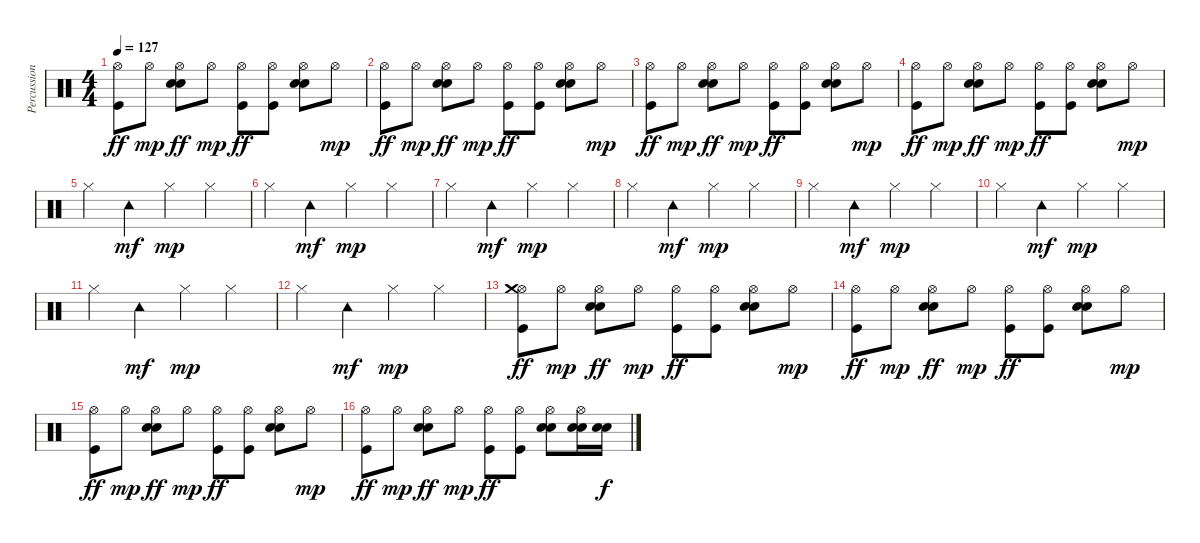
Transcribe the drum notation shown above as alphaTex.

\track ("Percussions" "Percussion") {instrument percussion}
\staff {score}
\articulation defaults
\ts (4 4)
\tempo 127
\clef neutral
\ks c
("Hi-Hat (open)" "Kick (hit)").8{dy ff} "Hi-Hat (open)".8{dy mp} ("Hi-Hat (open)" "Snare (hit) 2" "Electric Snare (hit)").8{dy ff} "Hi-Hat (open)".8{dy mp} ("Hi-Hat (open)" "Kick (hit)").8{dy ff} ("Hi-Hat (open)" "Kick (hit)").8 ("Hi-Hat (open)" "Snare (hit) 2" "Electric Snare (hit)").8 "Hi-Hat (open)".8{dy mp} |
("Hi-Hat (open)" "Kick (hit)").8{dy ff} "Hi-Hat (open)".8{dy mp} ("Hi-Hat (open)" "Snare (hit) 2" "Electric Snare (hit)").8{dy ff} "Hi-Hat (open)".8{dy mp} ("Hi-Hat (open)" "Kick (hit)").8{dy ff} ("Hi-Hat (open)" "Kick (hit)").8 ("Hi-Hat (open)" "Snare (hit) 2" "Electric Snare (hit)").8 "Hi-Hat (open)".8{dy mp} |
("Hi-Hat (open)" "Kick (hit)").8{dy ff} "Hi-Hat (open)".8{dy mp} ("Hi-Hat (open)" "Snare (hit) 2" "Electric Snare (hit)").8{dy ff} "Hi-Hat (open)".8{dy mp} ("Hi-Hat (open)" "Kick (hit)").8{dy ff} ("Hi-Hat (open)" "Kick (hit)").8 ("Hi-Hat (open)" "Snare (hit) 2" "Electric Snare (hit)").8 "Hi-Hat (open)".8{dy mp} |
("Hi-Hat (open)" "Kick (hit)").8{dy ff} "Hi-Hat (open)".8{dy mp} ("Hi-Hat (open)" "Snare (hit) 2" "Electric Snare (hit)").8{dy ff} "Hi-Hat (open)".8{dy mp} ("Hi-Hat (open)" "Kick (hit)").8{dy ff} ("Hi-Hat (open)" "Kick (hit)").8 ("Hi-Hat (open)" "Snare (hit) 2" "Electric Snare (hit)").8 "Hi-Hat (open)".8{dy mp} |
"Hi-Hat (closed)".4 "Tambourine (hit)".4{dy mf} "Hi-Hat (closed)".4{dy mp} "Hi-Hat (closed)".4 |
"Hi-Hat (closed)".4 "Tambourine (hit)".4{dy mf} "Hi-Hat (closed)".4{dy mp} "Hi-Hat (closed)".4 |
"Hi-Hat (closed)".4 "Tambourine (hit)".4{dy mf} "Hi-Hat (closed)".4{dy mp} "Hi-Hat (closed)".4 |
"Hi-Hat (closed)".4 "Tambourine (hit)".4{dy mf} "Hi-Hat (closed)".4{dy mp} "Hi-Hat (closed)".4 |
"Hi-Hat (closed)".4 "Tambourine (hit)".4{dy mf} "Hi-Hat (closed)".4{dy mp} "Hi-Hat (closed)".4 |
"Hi-Hat (closed)".4 "Tambourine (hit)".4{dy mf} "Hi-Hat (closed)".4{dy mp} "Hi-Hat (closed)".4 |
"Hi-Hat (closed)".4 "Tambourine (hit)".4{dy mf} "Hi-Hat (closed)".4{dy mp} "Hi-Hat (closed)".4 |
"Hi-Hat (closed)".4 "Tambourine (hit)".4{dy mf} "Hi-Hat (closed)".4{dy mp} "Hi-Hat (closed)".4 |
("Hi-Hat (open)" "Crash medium (hit)" "Kick (hit)").8{dy ff} "Hi-Hat (open)".8{dy mp} ("Hi-Hat (open)" "Snare (hit) 2" "Electric Snare (hit)").8{dy ff} "Hi-Hat (open)".8{dy mp} ("Hi-Hat (open)" "Kick (hit)").8{dy ff} ("Hi-Hat (open)" "Kick (hit)").8 ("Hi-Hat (open)" "Snare (hit) 2" "Electric Snare (hit)").8 "Hi-Hat (open)".8{dy mp} |
("Hi-Hat (open)" "Kick (hit)").8{dy ff} "Hi-Hat (open)".8{dy mp} ("Hi-Hat (open)" "Snare (hit) 2" "Electric Snare (hit)").8{dy ff} "Hi-Hat (open)".8{dy mp} ("Hi-Hat (open)" "Kick (hit)").8{dy ff} ("Hi-Hat (open)" "Kick (hit)").8 ("Hi-Hat (open)" "Snare (hit) 2" "Electric Snare (hit)").8 "Hi-Hat (open)".8{dy mp} |
("Hi-Hat (open)" "Kick (hit)").8{dy ff} "Hi-Hat (open)".8{dy mp} ("Hi-Hat (open)" "Snare (hit) 2" "Electric Snare (hit)").8{dy ff} "Hi-Hat (open)".8{dy mp} ("Hi-Hat (open)" "Kick (hit)").8{dy ff} ("Hi-Hat (open)" "Kick (hit)").8 ("Hi-Hat (open)" "Snare (hit) 2" "Electric Snare (hit)").8 "Hi-Hat (open)".8{dy mp} |
("Hi-Hat (open)" "Kick (hit)").8{dy ff} "Hi-Hat (open)".8{dy mp} ("Hi-Hat (open)" "Snare (hit) 2" "Electric Snare (hit)").8{dy ff} "Hi-Hat (open)".8{dy mp} ("Hi-Hat (open)" "Kick (hit)").8{dy ff} ("Hi-Hat (open)" "Kick (hit)").8 ("Hi-Hat (open)" "Snare (hit) 2" "Electric Snare (hit)").8 ("Hi-Hat (open)" "Snare (hit) 2" "Electric Snare (hit)").16 ("Snare (hit) 2" "Electric Snare (hit)").16{dy f}
